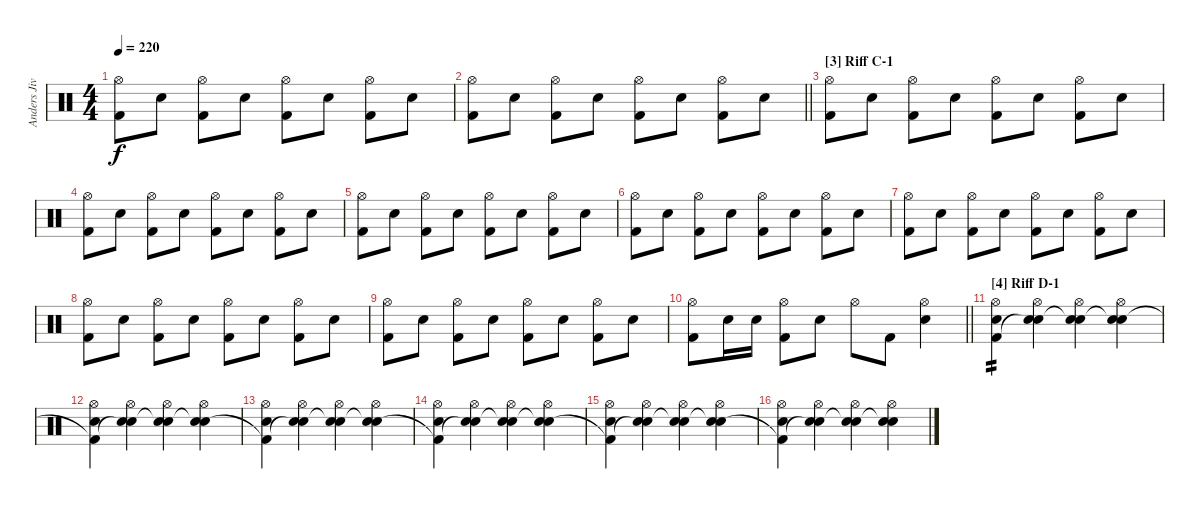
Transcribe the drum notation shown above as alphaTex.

\track ("Anders Jivarp" "Anders Jiv") {instrument percussion}
\staff {score}
\articulation defaults
\ts (4 4)
\tempo 220
\clef neutral
\ks c
("Hi-Hat (open)" "Kick (hit) 2").8{dy f} "Snare (hit) 2".8 ("Hi-Hat (open)" "Kick (hit) 2").8 "Snare (hit) 2".8 ("Hi-Hat (open)" "Kick (hit) 2").8 "Snare (hit) 2".8 ("Hi-Hat (open)" "Kick (hit) 2").8 "Snare (hit) 2".8 |
\barLineRight lightlight
("Hi-Hat (open)" "Kick (hit) 2").8 "Snare (hit) 2".8 ("Hi-Hat (open)" "Kick (hit) 2").8 "Snare (hit) 2".8 ("Hi-Hat (open)" "Kick (hit) 2").8 "Snare (hit) 2".8 ("Hi-Hat (open)" "Kick (hit) 2").8 "Snare (hit) 2".8 |
\section ("" "[3] Riff C-1")
("Hi-Hat (open)" "Kick (hit) 2").8 "Snare (hit) 2".8 ("Hi-Hat (open)" "Kick (hit) 2").8 "Snare (hit) 2".8 ("Hi-Hat (open)" "Kick (hit) 2").8 "Snare (hit) 2".8 ("Hi-Hat (open)" "Kick (hit) 2").8 "Snare (hit) 2".8 |
("Hi-Hat (open)" "Kick (hit) 2").8 "Snare (hit) 2".8 ("Hi-Hat (open)" "Kick (hit) 2").8 "Snare (hit) 2".8 ("Hi-Hat (open)" "Kick (hit) 2").8 "Snare (hit) 2".8 ("Hi-Hat (open)" "Kick (hit) 2").8 "Snare (hit) 2".8 |
("Hi-Hat (open)" "Kick (hit) 2").8 "Snare (hit) 2".8 ("Hi-Hat (open)" "Kick (hit) 2").8 "Snare (hit) 2".8 ("Hi-Hat (open)" "Kick (hit) 2").8 "Snare (hit) 2".8 ("Hi-Hat (open)" "Kick (hit) 2").8 "Snare (hit) 2".8 |
("Hi-Hat (open)" "Kick (hit) 2").8 "Snare (hit) 2".8 ("Hi-Hat (open)" "Kick (hit) 2").8 "Snare (hit) 2".8 ("Hi-Hat (open)" "Kick (hit) 2").8 "Snare (hit) 2".8 ("Hi-Hat (open)" "Kick (hit) 2").8 "Snare (hit) 2".8 |
("Hi-Hat (open)" "Kick (hit) 2").8 "Snare (hit) 2".8 ("Hi-Hat (open)" "Kick (hit) 2").8 "Snare (hit) 2".8 ("Hi-Hat (open)" "Kick (hit) 2").8 "Snare (hit) 2".8 ("Hi-Hat (open)" "Kick (hit) 2").8 "Snare (hit) 2".8 |
("Hi-Hat (open)" "Kick (hit) 2").8 "Snare (hit) 2".8 ("Hi-Hat (open)" "Kick (hit) 2").8 "Snare (hit) 2".8 ("Hi-Hat (open)" "Kick (hit) 2").8 "Snare (hit) 2".8 ("Hi-Hat (open)" "Kick (hit) 2").8 "Snare (hit) 2".8 |
("Hi-Hat (open)" "Kick (hit) 2").8 "Snare (hit) 2".8 ("Hi-Hat (open)" "Kick (hit) 2").8 "Snare (hit) 2".8 ("Hi-Hat (open)" "Kick (hit) 2").8 "Snare (hit) 2".8 ("Hi-Hat (open)" "Kick (hit) 2").8 "Snare (hit) 2".8 |
\barLineRight lightlight
("Hi-Hat (open)" "Kick (hit) 2").8 "Snare (hit) 2".16 "Snare (hit) 2".16 ("Hi-Hat (open)" "Kick (hit) 2").8 "Snare (hit) 2".8 "Hi-Hat (open)".8 "Kick (hit) 2".8 ("Hi-Hat (open)" "Snare (hit) 2").4 |
\section ("" "[4] Riff D-1")
("Hi-Hat (open)" "Snare (hit) 2" "Kick (hit) 2").4{tp 2} ("Hi-Hat (open)" "Snare (hit) 2" "Snare (hit)"{t}).4 ("Hi-Hat (open)" "Snare (hit) 2" "Snare (hit)"{t}).4 ("Hi-Hat (open)" "Snare (hit) 2" "Snare (hit)"{t}).4 |
("Hi-Hat (open)" "Snare (hit) 2" "Kick (hit) 2"{t}).4 ("Hi-Hat (open)" "Snare (hit) 2" "Snare (hit)"{t}).4 ("Hi-Hat (open)" "Snare (hit) 2" "Snare (hit)"{t}).4 ("Hi-Hat (open)" "Snare (hit) 2" "Snare (hit)"{t}).4 |
("Hi-Hat (open)" "Snare (hit) 2" "Kick (hit) 2"{t}).4 ("Hi-Hat (open)" "Snare (hit) 2" "Snare (hit)"{t}).4 ("Hi-Hat (open)" "Snare (hit) 2" "Snare (hit)"{t}).4 ("Hi-Hat (open)" "Snare (hit) 2" "Snare (hit)"{t}).4 |
("Hi-Hat (open)" "Snare (hit) 2" "Kick (hit) 2"{t}).4 ("Hi-Hat (open)" "Snare (hit) 2" "Snare (hit)"{t}).4 ("Hi-Hat (open)" "Snare (hit) 2" "Snare (hit)"{t}).4 ("Hi-Hat (open)" "Snare (hit) 2" "Snare (hit)"{t}).4 |
("Hi-Hat (open)" "Snare (hit) 2" "Kick (hit) 2"{t}).4 ("Hi-Hat (open)" "Snare (hit) 2" "Snare (hit)"{t}).4 ("Hi-Hat (open)" "Snare (hit) 2" "Snare (hit)"{t}).4 ("Hi-Hat (open)" "Snare (hit) 2" "Snare (hit)"{t}).4 |
("Hi-Hat (open)" "Snare (hit) 2" "Kick (hit) 2"{t}).4 ("Hi-Hat (open)" "Snare (hit) 2" "Snare (hit)"{t}).4 ("Hi-Hat (open)" "Snare (hit) 2" "Snare (hit)"{t}).4 ("Hi-Hat (open)" "Snare (hit) 2" "Snare (hit)"{t}).4
